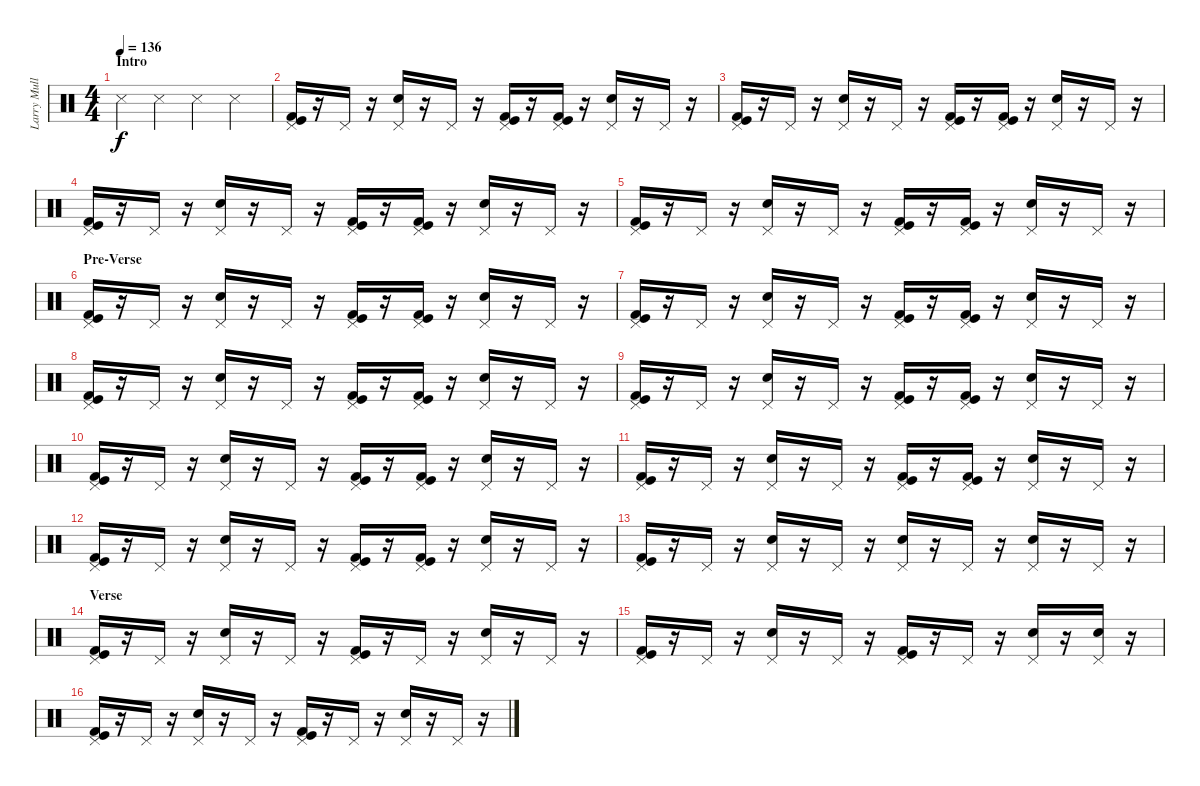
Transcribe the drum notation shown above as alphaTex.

\track ("Larry Mullen Jr." "Larry Mull") {instrument percussion}
\staff {score}
\articulation defaults
\ts (4 4)
\section ("" "Intro")
\tempo 136
\clef neutral
\ks c "Snare (side stick) 3".4{dy f} "Snare (side stick) 3".4 "Snare (side stick) 3".4 "Snare (side stick) 3".4
|
("Kick (hit) 2" "Kick (hit)" "Pedal Hi-Hat (hit)").16 r.16 "Pedal Hi-Hat (hit)".16 r.16 ("Electric Snare (hit)" "Pedal Hi-Hat (hit)").16 r.16 "Pedal Hi-Hat (hit)".16 r.16 ("Kick (hit) 2" "Kick (hit)" "Pedal Hi-Hat (hit)").16 r.16 ("Kick (hit) 2" "Kick (hit)" "Pedal Hi-Hat (hit)").16 r.16 ("Electric Snare (hit)" "Pedal Hi-Hat (hit)").16 r.16 "Pedal Hi-Hat (hit)".16 r.16 |
("Kick (hit) 2" "Kick (hit)" "Pedal Hi-Hat (hit)").16 r.16 "Pedal Hi-Hat (hit)".16 r.16 ("Electric Snare (hit)" "Pedal Hi-Hat (hit)").16 r.16 "Pedal Hi-Hat (hit)".16 r.16 ("Kick (hit) 2" "Kick (hit)" "Pedal Hi-Hat (hit)").16 r.16 ("Kick (hit) 2" "Kick (hit)" "Pedal Hi-Hat (hit)").16 r.16 ("Electric Snare (hit)" "Pedal Hi-Hat (hit)").16 r.16 "Pedal Hi-Hat (hit)".16 r.16 |
("Kick (hit) 2" "Kick (hit)" "Pedal Hi-Hat (hit)").16 r.16 "Pedal Hi-Hat (hit)".16 r.16 ("Electric Snare (hit)" "Pedal Hi-Hat (hit)").16 r.16 "Pedal Hi-Hat (hit)".16 r.16 ("Kick (hit) 2" "Kick (hit)" "Pedal Hi-Hat (hit)").16 r.16 ("Kick (hit) 2" "Kick (hit)" "Pedal Hi-Hat (hit)").16 r.16 ("Electric Snare (hit)" "Pedal Hi-Hat (hit)").16 r.16 "Pedal Hi-Hat (hit)".16 r.16 |
("Kick (hit) 2" "Kick (hit)" "Pedal Hi-Hat (hit)").16 r.16 "Pedal Hi-Hat (hit)".16 r.16 ("Electric Snare (hit)" "Pedal Hi-Hat (hit)").16 r.16 "Pedal Hi-Hat (hit)".16 r.16 ("Kick (hit) 2" "Kick (hit)" "Pedal Hi-Hat (hit)").16 r.16 ("Kick (hit) 2" "Kick (hit)" "Pedal Hi-Hat (hit)").16 r.16 ("Electric Snare (hit)" "Pedal Hi-Hat (hit)").16 r.16 "Pedal Hi-Hat (hit)".16 r.16 |
\section ("" "Pre-Verse")
("Kick (hit) 2" "Kick (hit)" "Pedal Hi-Hat (hit)").16 r.16 "Pedal Hi-Hat (hit)".16 r.16 ("Electric Snare (hit)" "Pedal Hi-Hat (hit)").16 r.16 "Pedal Hi-Hat (hit)".16 r.16 ("Kick (hit) 2" "Kick (hit)" "Pedal Hi-Hat (hit)").16 r.16 ("Kick (hit) 2" "Kick (hit)" "Pedal Hi-Hat (hit)").16 r.16 ("Electric Snare (hit)" "Pedal Hi-Hat (hit)").16 r.16 "Pedal Hi-Hat (hit)".16 r.16 |
("Kick (hit) 2" "Kick (hit)" "Pedal Hi-Hat (hit)").16 r.16 "Pedal Hi-Hat (hit)".16 r.16 ("Electric Snare (hit)" "Pedal Hi-Hat (hit)").16 r.16 "Pedal Hi-Hat (hit)".16 r.16 ("Kick (hit) 2" "Kick (hit)" "Pedal Hi-Hat (hit)").16 r.16 ("Kick (hit) 2" "Kick (hit)" "Pedal Hi-Hat (hit)").16 r.16 ("Electric Snare (hit)" "Pedal Hi-Hat (hit)").16 r.16 "Pedal Hi-Hat (hit)".16 r.16 |
("Kick (hit) 2" "Kick (hit)" "Pedal Hi-Hat (hit)").16 r.16 "Pedal Hi-Hat (hit)".16 r.16 ("Electric Snare (hit)" "Pedal Hi-Hat (hit)").16 r.16 "Pedal Hi-Hat (hit)".16 r.16 ("Kick (hit) 2" "Kick (hit)" "Pedal Hi-Hat (hit)").16 r.16 ("Kick (hit) 2" "Kick (hit)" "Pedal Hi-Hat (hit)").16 r.16 ("Electric Snare (hit)" "Pedal Hi-Hat (hit)").16 r.16 "Pedal Hi-Hat (hit)".16 r.16 |
("Kick (hit) 2" "Kick (hit)" "Pedal Hi-Hat (hit)").16 r.16 "Pedal Hi-Hat (hit)".16 r.16 ("Electric Snare (hit)" "Pedal Hi-Hat (hit)").16 r.16 "Pedal Hi-Hat (hit)".16 r.16 ("Kick (hit) 2" "Kick (hit)" "Pedal Hi-Hat (hit)").16 r.16 ("Kick (hit) 2" "Kick (hit)" "Pedal Hi-Hat (hit)").16 r.16 ("Electric Snare (hit)" "Pedal Hi-Hat (hit)").16 r.16 "Pedal Hi-Hat (hit)".16 r.16 |
("Kick (hit) 2" "Kick (hit)" "Pedal Hi-Hat (hit)").16 r.16 "Pedal Hi-Hat (hit)".16 r.16 ("Electric Snare (hit)" "Pedal Hi-Hat (hit)").16 r.16 "Pedal Hi-Hat (hit)".16 r.16 ("Kick (hit) 2" "Kick (hit)" "Pedal Hi-Hat (hit)").16 r.16 ("Kick (hit) 2" "Kick (hit)" "Pedal Hi-Hat (hit)").16 r.16 ("Electric Snare (hit)" "Pedal Hi-Hat (hit)").16 r.16 "Pedal Hi-Hat (hit)".16 r.16 |
("Kick (hit) 2" "Kick (hit)" "Pedal Hi-Hat (hit)").16 r.16 "Pedal Hi-Hat (hit)".16 r.16 ("Electric Snare (hit)" "Pedal Hi-Hat (hit)").16 r.16 "Pedal Hi-Hat (hit)".16 r.16 ("Kick (hit) 2" "Kick (hit)" "Pedal Hi-Hat (hit)").16 r.16 ("Kick (hit) 2" "Kick (hit)" "Pedal Hi-Hat (hit)").16 r.16 ("Electric Snare (hit)" "Pedal Hi-Hat (hit)").16 r.16 "Pedal Hi-Hat (hit)".16 r.16 |
("Kick (hit) 2" "Kick (hit)" "Pedal Hi-Hat (hit)").16 r.16 "Pedal Hi-Hat (hit)".16 r.16 ("Electric Snare (hit)" "Pedal Hi-Hat (hit)").16 r.16 "Pedal Hi-Hat (hit)".16 r.16 ("Kick (hit) 2" "Kick (hit)" "Pedal Hi-Hat (hit)").16 r.16 ("Kick (hit) 2" "Kick (hit)" "Pedal Hi-Hat (hit)").16 r.16 ("Electric Snare (hit)" "Pedal Hi-Hat (hit)").16 r.16 "Pedal Hi-Hat (hit)".16 r.16 |
("Kick (hit) 2" "Kick (hit)" "Pedal Hi-Hat (hit)").16 r.16 "Pedal Hi-Hat (hit)".16 r.16 ("Electric Snare (hit)" "Pedal Hi-Hat (hit)").16 r.16 "Pedal Hi-Hat (hit)".16 r.16 ("Snare (hit) 2" "Pedal Hi-Hat (hit)").16 r.16 "Pedal Hi-Hat (hit)".16 r.16 ("Snare (hit) 2" "Pedal Hi-Hat (hit)").16 r.16 "Pedal Hi-Hat (hit)".16 r.16 |
\section ("" "Verse")
("Kick (hit) 2" "Kick (hit)" "Pedal Hi-Hat (hit)").16 r.16 "Pedal Hi-Hat (hit)".16 r.16 ("Snare (hit) 2" "Pedal Hi-Hat (hit)").16 r.16 "Pedal Hi-Hat (hit)".16 r.16 ("Kick (hit) 2" "Kick (hit)" "Pedal Hi-Hat (hit)").16 r.16 "Pedal Hi-Hat (hit)".16 r.16 ("Snare (hit) 2" "Pedal Hi-Hat (hit)").16 r.16 "Pedal Hi-Hat (hit)".16 r.16 |
("Kick (hit) 2" "Kick (hit)" "Pedal Hi-Hat (hit)").16 r.16 "Pedal Hi-Hat (hit)".16 r.16 ("Snare (hit) 2" "Pedal Hi-Hat (hit)").16 r.16 "Pedal Hi-Hat (hit)".16 r.16 ("Kick (hit) 2" "Kick (hit)" "Pedal Hi-Hat (hit)").16 r.16 "Pedal Hi-Hat (hit)".16 r.16 ("Snare (hit) 2" "Pedal Hi-Hat (hit)").16 r.16 ("Snare (hit) 2" "Pedal Hi-Hat (hit)").16 r.16 |
("Kick (hit) 2" "Kick (hit)" "Pedal Hi-Hat (hit)").16 r.16 "Pedal Hi-Hat (hit)".16 r.16 ("Snare (hit) 2" "Pedal Hi-Hat (hit)").16 r.16 "Pedal Hi-Hat (hit)".16 r.16 ("Kick (hit) 2" "Kick (hit)" "Pedal Hi-Hat (hit)").16 r.16 "Pedal Hi-Hat (hit)".16 r.16 ("Snare (hit) 2" "Pedal Hi-Hat (hit)").16 r.16 "Pedal Hi-Hat (hit)".16 r.16
